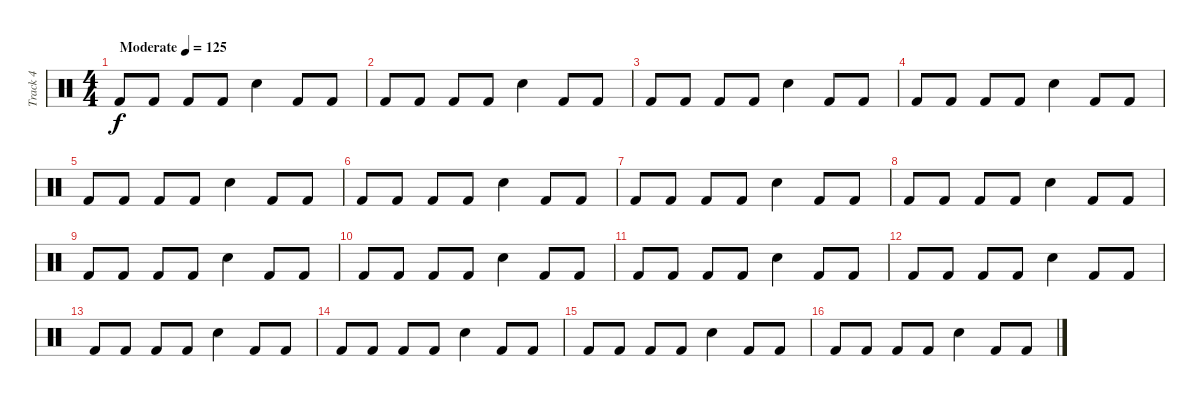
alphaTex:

\track ("Track 4" "Track 4") {instrument percussion}
\staff {score}
\articulation defaults
\ts (4 4)
\tempo (125 "Moderate")
\clef neutral
\ks c "Kick (hit) 2".8{dy f} "Kick (hit) 2".8 "Kick (hit) 2".8 "Kick (hit) 2".8 "Snare (hit) 2".4 "Kick (hit) 2".8 "Kick (hit) 2".8
|
"Kick (hit) 2".8 "Kick (hit) 2".8 "Kick (hit) 2".8 "Kick (hit) 2".8 "Snare (hit) 2".4 "Kick (hit) 2".8 "Kick (hit) 2".8 |
"Kick (hit) 2".8 "Kick (hit) 2".8 "Kick (hit) 2".8 "Kick (hit) 2".8 "Snare (hit) 2".4 "Kick (hit) 2".8 "Kick (hit) 2".8 |
"Kick (hit) 2".8 "Kick (hit) 2".8 "Kick (hit) 2".8 "Kick (hit) 2".8 "Snare (hit) 2".4 "Kick (hit) 2".8 "Kick (hit) 2".8 |
"Kick (hit) 2".8 "Kick (hit) 2".8 "Kick (hit) 2".8 "Kick (hit) 2".8 "Snare (hit) 2".4 "Kick (hit) 2".8 "Kick (hit) 2".8 |
"Kick (hit) 2".8 "Kick (hit) 2".8 "Kick (hit) 2".8 "Kick (hit) 2".8 "Snare (hit) 2".4 "Kick (hit) 2".8 "Kick (hit) 2".8 |
"Kick (hit) 2".8 "Kick (hit) 2".8 "Kick (hit) 2".8 "Kick (hit) 2".8 "Snare (hit) 2".4 "Kick (hit) 2".8 "Kick (hit) 2".8 |
"Kick (hit) 2".8 "Kick (hit) 2".8 "Kick (hit) 2".8 "Kick (hit) 2".8 "Snare (hit) 2".4 "Kick (hit) 2".8 "Kick (hit) 2".8 |
"Kick (hit) 2".8 "Kick (hit) 2".8 "Kick (hit) 2".8 "Kick (hit) 2".8 "Snare (hit) 2".4 "Kick (hit) 2".8 "Kick (hit) 2".8 |
"Kick (hit) 2".8 "Kick (hit) 2".8 "Kick (hit) 2".8 "Kick (hit) 2".8 "Snare (hit) 2".4 "Kick (hit) 2".8 "Kick (hit) 2".8 |
"Kick (hit) 2".8 "Kick (hit) 2".8 "Kick (hit) 2".8 "Kick (hit) 2".8 "Snare (hit) 2".4 "Kick (hit) 2".8 "Kick (hit) 2".8 |
"Kick (hit) 2".8 "Kick (hit) 2".8 "Kick (hit) 2".8 "Kick (hit) 2".8 "Snare (hit) 2".4 "Kick (hit) 2".8 "Kick (hit) 2".8 |
"Kick (hit) 2".8 "Kick (hit) 2".8 "Kick (hit) 2".8 "Kick (hit) 2".8 "Snare (hit) 2".4 "Kick (hit) 2".8 "Kick (hit) 2".8 |
"Kick (hit) 2".8 "Kick (hit) 2".8 "Kick (hit) 2".8 "Kick (hit) 2".8 "Snare (hit) 2".4 "Kick (hit) 2".8 "Kick (hit) 2".8 |
"Kick (hit) 2".8 "Kick (hit) 2".8 "Kick (hit) 2".8 "Kick (hit) 2".8 "Snare (hit) 2".4 "Kick (hit) 2".8 "Kick (hit) 2".8 |
"Kick (hit) 2".8 "Kick (hit) 2".8 "Kick (hit) 2".8 "Kick (hit) 2".8 "Snare (hit) 2".4 "Kick (hit) 2".8 "Kick (hit) 2".8
